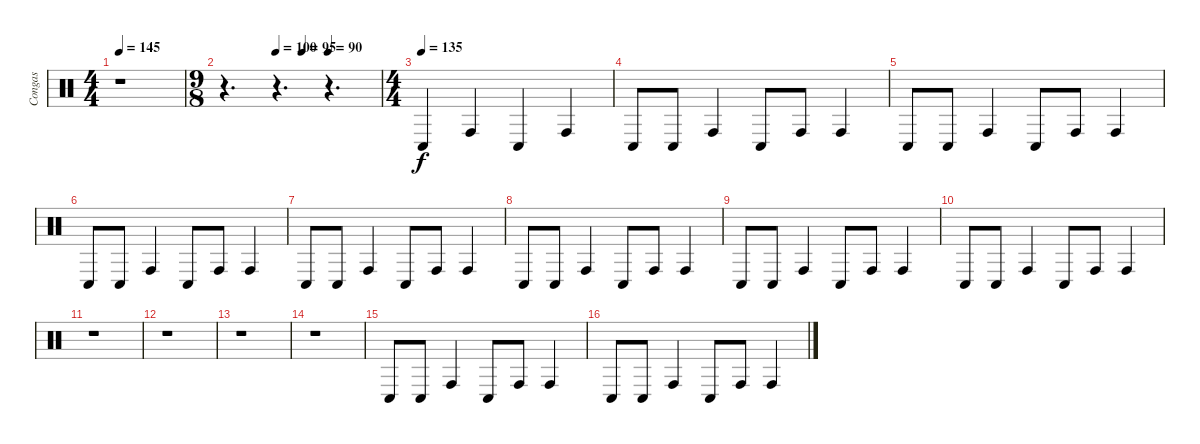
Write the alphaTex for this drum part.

\track ("Congas" "Congas") {instrument percussion}
\staff {score}
\articulation defaults
\ts (4 4)
\tempo 145
\clef neutral
\ks c
r.1{dy f} |
\ts (9 8)
\tempo (100 0.3333333333333333)
\tempo (95 0.5)
\tempo (90 0.6666666666666666)
r.4{d} r.4{d} r.4{d} |
\ts (4 4)
\tempo (135)
"Conga low (hit)".4 "Conga high (hit)".4 "Conga low (hit)".4 "Conga high (hit)".4 |
"Conga low (hit)".8 "Conga low (hit)".8 "Conga high (hit)".4 "Conga low (hit)".8 "Conga high (hit)".8 "Conga high (hit)".4 |
"Conga low (hit)".8 "Conga low (hit)".8 "Conga high (hit)".4 "Conga low (hit)".8 "Conga high (hit)".8 "Conga high (hit)".4 |
"Conga low (hit)".8 "Conga low (hit)".8 "Conga high (hit)".4 "Conga low (hit)".8 "Conga high (hit)".8 "Conga high (hit)".4 |
"Conga low (hit)".8 "Conga low (hit)".8 "Conga high (hit)".4 "Conga low (hit)".8 "Conga high (hit)".8 "Conga high (hit)".4 |
"Conga low (hit)".8 "Conga low (hit)".8 "Conga high (hit)".4 "Conga low (hit)".8 "Conga high (hit)".8 "Conga high (hit)".4 |
"Conga low (hit)".8 "Conga low (hit)".8 "Conga high (hit)".4 "Conga low (hit)".8 "Conga high (hit)".8 "Conga high (hit)".4 |
"Conga low (hit)".8 "Conga low (hit)".8 "Conga high (hit)".4 "Conga low (hit)".8 "Conga high (hit)".8 "Conga high (hit)".4 |
r.1 |
r.1 |
r.1 |
r.1 |
"Conga low (hit)".8 "Conga low (hit)".8 "Conga high (hit)".4 "Conga low (hit)".8 "Conga high (hit)".8 "Conga high (hit)".4 |
"Conga low (hit)".8 "Conga low (hit)".8 "Conga high (hit)".4 "Conga low (hit)".8 "Conga high (hit)".8 "Conga high (hit)".4
